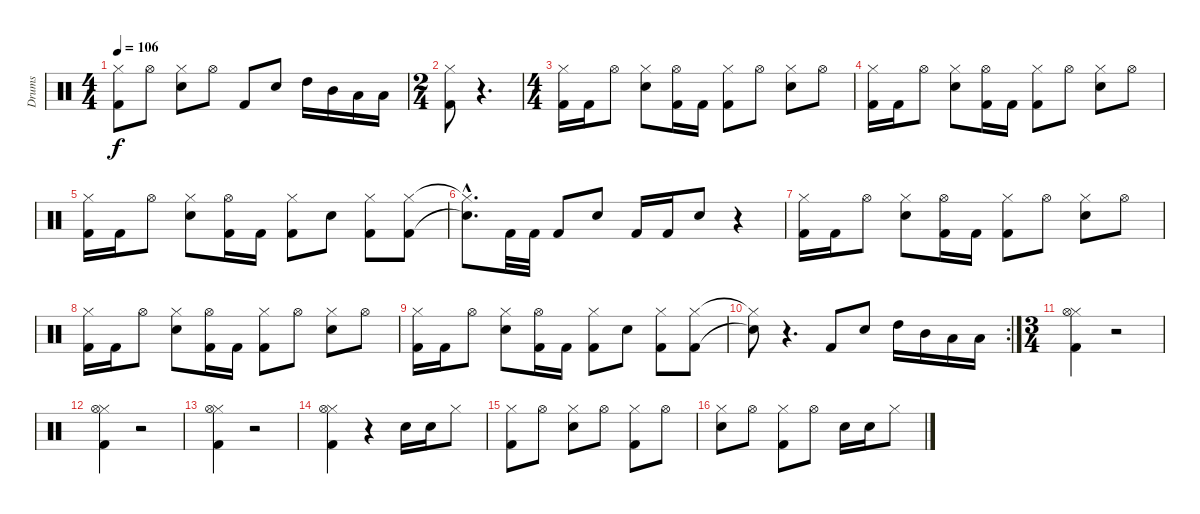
\track ("Drums" "Drums") {instrument percussion}
\staff {score}
\articulation defaults
\ts (4 4)
\tempo 106
\clef neutral
\ks c
("Hi-Hat (closed)" "Kick (hit) 2").8{dy f} "Hi-Hat (open)".8 ("Hi-Hat (closed)" "Electric Snare (hit)").8 "Hi-Hat (open)".8 "Kick (hit) 2".8 "Electric Snare (hit)".8 "High Tom (hit)".16 "Mid Tom (hit)".16 "Low Tom (hit)".16 "Low Tom (hit)".16 |
\ts (2 4)
("Hi-Hat (closed)" "Kick (hit) 2").8 r.4{d} |
\ts (4 4)
("Hi-Hat (closed)" "Kick (hit) 2").16 "Kick (hit) 2".16 "Hi-Hat (open)".8 ("Hi-Hat (closed)" "Electric Snare (hit)").8 ("Kick (hit) 2" "Hi-Hat (open)").16 "Kick (hit) 2".16 ("Hi-Hat (closed)" "Kick (hit) 2").8 "Hi-Hat (open)".8 ("Hi-Hat (closed)" "Electric Snare (hit)").8 "Hi-Hat (open)".8 |
("Hi-Hat (closed)" "Kick (hit) 2").16 "Kick (hit) 2".16 "Hi-Hat (open)".8 ("Hi-Hat (closed)" "Electric Snare (hit)").8 ("Kick (hit) 2" "Hi-Hat (open)").16 "Kick (hit) 2".16 ("Hi-Hat (closed)" "Kick (hit) 2").8 "Hi-Hat (open)".8 ("Hi-Hat (closed)" "Electric Snare (hit)").8 "Hi-Hat (open)".8 |
("Hi-Hat (closed)" "Kick (hit) 2").16 "Kick (hit) 2".16 "Hi-Hat (open)".8 ("Hi-Hat (closed)" "Electric Snare (hit)").8 ("Kick (hit) 2" "Hi-Hat (open)").16 "Kick (hit) 2".16 ("Hi-Hat (closed)" "Kick (hit) 2").8 "Electric Snare (hit)".8 ("Hi-Hat (closed)" "Kick (hit) 2").8 ("Hi-Hat (closed)" "Kick (hit) 2").8 |
("Hi-Hat (closed)"{hac t} "Electric Snare (hit)"{hac t}).8{d} "Kick (hit) 2".32 "Kick (hit) 2".32 "Kick (hit) 2".8 "Electric Snare (hit)".8 "Kick (hit) 2".16 "Kick (hit) 2".16 "Electric Snare (hit)".8 r.4 |
("Hi-Hat (closed)" "Kick (hit) 2").16 "Kick (hit) 2".16 "Hi-Hat (open)".8 ("Hi-Hat (closed)" "Electric Snare (hit)").8 ("Kick (hit) 2" "Hi-Hat (open)").16 "Kick (hit) 2".16 ("Hi-Hat (closed)" "Kick (hit) 2").8 "Hi-Hat (open)".8 ("Hi-Hat (closed)" "Electric Snare (hit)").8 "Hi-Hat (open)".8 |
("Hi-Hat (closed)" "Kick (hit) 2").16 "Kick (hit) 2".16 "Hi-Hat (open)".8 ("Hi-Hat (closed)" "Electric Snare (hit)").8 ("Kick (hit) 2" "Hi-Hat (open)").16 "Kick (hit) 2".16 ("Hi-Hat (closed)" "Kick (hit) 2").8 "Hi-Hat (open)".8 ("Hi-Hat (closed)" "Electric Snare (hit)").8 "Hi-Hat (open)".8 |
("Hi-Hat (closed)" "Kick (hit) 2").16 "Kick (hit) 2".16 "Hi-Hat (open)".8 ("Hi-Hat (closed)" "Electric Snare (hit)").8 ("Kick (hit) 2" "Hi-Hat (open)").16 "Kick (hit) 2".16 ("Hi-Hat (closed)" "Kick (hit) 2").8 "Electric Snare (hit)".8 ("Hi-Hat (closed)" "Kick (hit) 2").8 ("Hi-Hat (closed)" "Kick (hit) 2").8 |
\rc 2
("Hi-Hat (closed)"{t} "Electric Snare (hit)"{t}).8 r.4{d} "Kick (hit) 2".8 "Electric Snare (hit)".8 "High Tom (hit)".16 "Mid Tom (hit)".16 "Low Tom (hit)".16 "Low Tom (hit)".16 |
\ts (3 4)
("Hi-Hat (closed)" "Kick (hit) 2" "Hi-Hat (open)").4 r.2 |
("Hi-Hat (closed)" "Kick (hit) 2" "Hi-Hat (open)").4 r.2 |
("Hi-Hat (closed)" "Kick (hit) 2" "Hi-Hat (open)").4 r.2 |
("Hi-Hat (closed)" "Kick (hit) 2" "Hi-Hat (open)").4 r.4 "Electric Snare (hit)".16 "Electric Snare (hit)".16 "Hi-Hat (closed)".8 |
("Hi-Hat (closed)" "Kick (hit) 2").8 "Hi-Hat (open)".8 ("Hi-Hat (closed)" "Electric Snare (hit)").8 "Hi-Hat (open)".8 ("Hi-Hat (closed)" "Kick (hit) 2").8 "Hi-Hat (open)".8 |
("Hi-Hat (closed)" "Electric Snare (hit)").8 "Hi-Hat (open)".8 ("Hi-Hat (closed)" "Kick (hit) 2").8 "Hi-Hat (open)".8 "Electric Snare (hit)".16 "Electric Snare (hit)".16 "Hi-Hat (closed)".8
